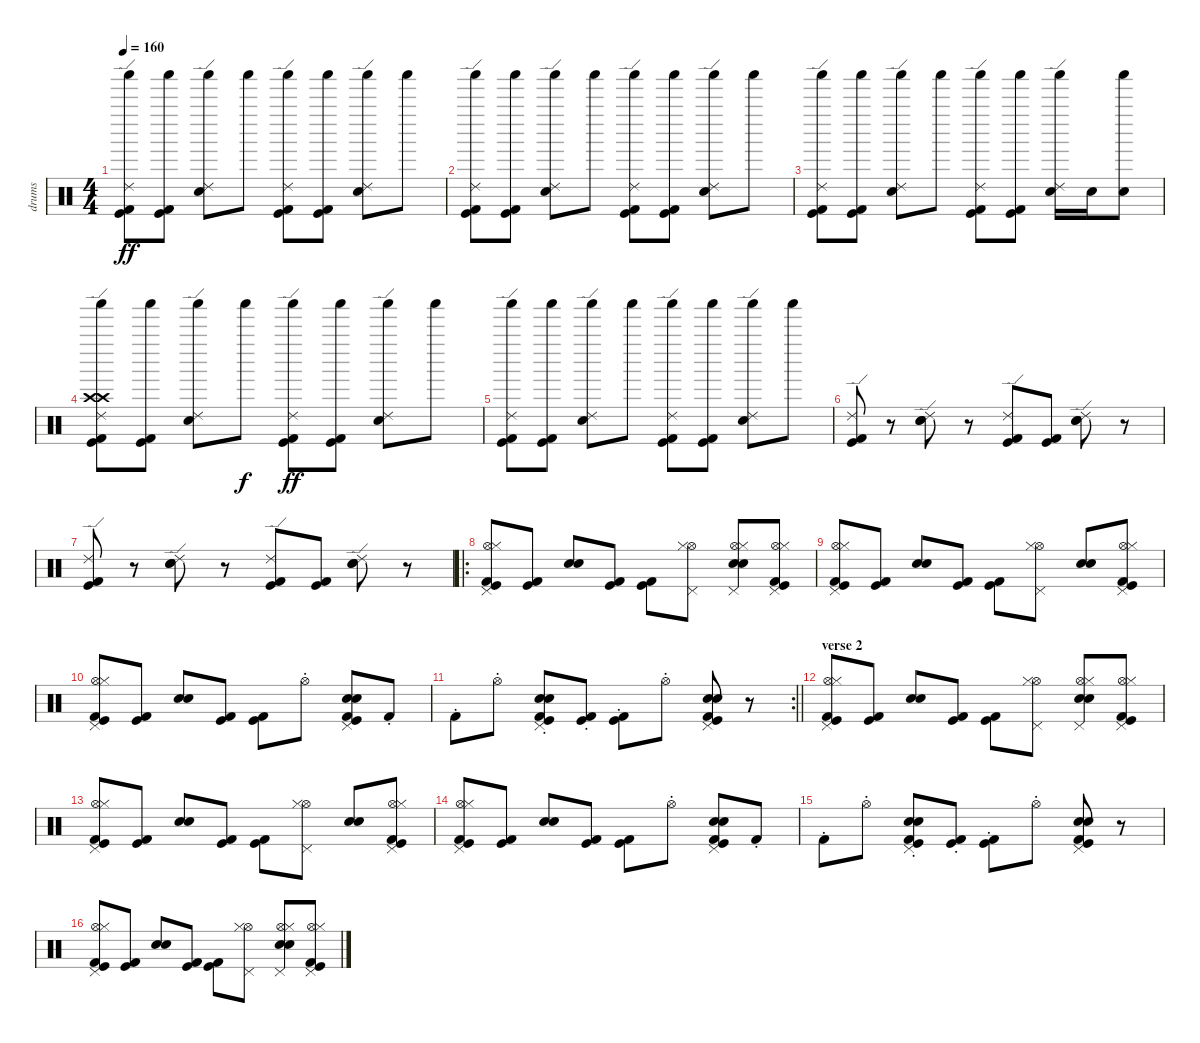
\track ("drums" "drums") {instrument percussion}
\staff {score}
\articulation defaults
\ts (4 4)
\tempo 160
\clef neutral
\ks c
("Shaker (hit)" "Kick (hit) 2" "Ride (edge) 2" "Kick (hit)").8{dy ff} ("Shaker (hit)" "Kick (hit) 2" "Kick (hit)").8 ("Shaker (hit)" "Ride (edge) 2" "Electric Snare (hit)").8 "Shaker (hit)".8 ("Shaker (hit)" "Kick (hit) 2" "Ride (edge) 2" "Kick (hit)").8 ("Shaker (hit)" "Kick (hit) 2" "Kick (hit)").8 ("Shaker (hit)" "Ride (edge) 2" "Electric Snare (hit)").8 "Shaker (hit)".8 |
("Shaker (hit)" "Kick (hit) 2" "Ride (edge) 2" "Kick (hit)").8 ("Shaker (hit)" "Kick (hit) 2" "Kick (hit)").8 ("Shaker (hit)" "Ride (edge) 2" "Electric Snare (hit)").8 "Shaker (hit)".8 ("Shaker (hit)" "Kick (hit) 2" "Ride (edge) 2" "Kick (hit)").8 ("Shaker (hit)" "Kick (hit) 2" "Kick (hit)").8 ("Shaker (hit)" "Ride (edge) 2" "Electric Snare (hit)").8 "Shaker (hit)".8 |
("Shaker (hit)" "Kick (hit) 2" "Ride (edge) 2" "Kick (hit)").8 ("Shaker (hit)" "Kick (hit) 2" "Kick (hit)").8 ("Shaker (hit)" "Ride (edge) 2" "Electric Snare (hit)").8 "Shaker (hit)".8 ("Shaker (hit)" "Kick (hit) 2" "Ride (edge) 2" "Kick (hit)").8 ("Shaker (hit)" "Kick (hit) 2" "Kick (hit)").8 ("Shaker (hit)" "Ride (edge) 2" "Electric Snare (hit)").16 "Electric Snare (hit)".16 ("Shaker (hit)" "Electric Snare (hit)").8 |
("Crash high (hit)" "Shaker (hit)" "Kick (hit) 2" "Ride (edge) 2" "Crash high (hit)" "Kick (hit)").8 ("Shaker (hit)" "Kick (hit) 2" "Kick (hit)").8 ("Shaker (hit)" "Ride (edge) 2" "Electric Snare (hit)").8 "Shaker (hit)".8{dy f} ("Shaker (hit)" "Kick (hit) 2" "Ride (edge) 2" "Kick (hit)").8{dy ff} ("Shaker (hit)" "Kick (hit) 2" "Kick (hit)").8 ("Shaker (hit)" "Ride (edge) 2" "Electric Snare (hit)").8 "Shaker (hit)".8 |
("Shaker (hit)" "Kick (hit) 2" "Ride (edge) 2" "Kick (hit)").8 ("Shaker (hit)" "Kick (hit) 2" "Kick (hit)").8 ("Shaker (hit)" "Ride (edge) 2" "Electric Snare (hit)").8 "Shaker (hit)".8 ("Shaker (hit)" "Kick (hit) 2" "Ride (edge) 2" "Kick (hit)").8 ("Shaker (hit)" "Kick (hit) 2" "Kick (hit)").8 ("Shaker (hit)" "Ride (edge) 2" "Electric Snare (hit)").8 "Shaker (hit)".8 |
("Ride (edge) 2" "Kick (hit) 2" "Kick (hit)").8 r.8 ("Ride (edge) 2" "Snare (hit) 2" "Electric Snare (hit)").8 r.8 ("Ride (edge) 2" "Kick (hit) 2" "Kick (hit)").8 ("Kick (hit) 2" "Kick (hit)").8 ("Ride (edge) 2" "Snare (hit) 2" "Electric Snare (hit)").8 r.8 |
("Ride (edge) 2" "Kick (hit) 2" "Kick (hit)").8 r.8 ("Ride (edge) 2" "Snare (hit) 2" "Electric Snare (hit)").8 r.8 ("Ride (edge) 2" "Kick (hit) 2" "Kick (hit)").8 ("Kick (hit) 2" "Kick (hit)").8 ("Ride (edge) 2" "Snare (hit) 2" "Electric Snare (hit)").8 r.8 |
\ro
("Hi-Hat (open)" "Hi-Hat (closed)" "Pedal Hi-Hat (hit)" "Kick (hit)" "Kick (hit) 2").8 ("Kick (hit)" "Kick (hit) 2").8 ("Electric Snare (hit)" "Snare (hit) 2").8 ("Kick (hit)" "Kick (hit) 2").8 ("Kick (hit)" "Kick (hit) 2").8 ("Hi-Hat (open)" "Pedal Hi-Hat (hit)" "Hi-Hat (closed)").8 ("Hi-Hat (open)" "Electric Snare (hit)" "Pedal Hi-Hat (hit)" "Hi-Hat (closed)" "Snare (hit) 2").8 ("Hi-Hat (open)" "Pedal Hi-Hat (hit)" "Hi-Hat (closed)" "Kick (hit)" "Kick (hit) 2").8 |
("Hi-Hat (open)" "Pedal Hi-Hat (hit)" "Hi-Hat (closed)" "Kick (hit)" "Kick (hit) 2").8 ("Kick (hit)" "Kick (hit) 2").8 ("Electric Snare (hit)" "Snare (hit) 2").8 ("Kick (hit)" "Kick (hit) 2").8 ("Kick (hit)" "Kick (hit) 2").8 ("Hi-Hat (open)" "Pedal Hi-Hat (hit)" "Hi-Hat (closed)").8 ("Electric Snare (hit)" "Snare (hit) 2").8 ("Hi-Hat (open)" "Pedal Hi-Hat (hit)" "Hi-Hat (closed)" "Kick (hit)" "Kick (hit) 2").8 |
("Hi-Hat (open)" "Pedal Hi-Hat (hit)" "Hi-Hat (closed)" "Kick (hit)" "Kick (hit) 2").8 ("Kick (hit)" "Kick (hit) 2").8 ("Electric Snare (hit)" "Snare (hit) 2").8 ("Kick (hit)" "Kick (hit) 2").8 ("Kick (hit)" "Kick (hit) 2").8 "Hi-Hat (open)"{st}.8 ("Electric Snare (hit)" "Pedal Hi-Hat (hit)" "Snare (hit) 2" "Kick (hit)" "Kick (hit) 2").8 "Kick (hit) 2"{st}.8 |
\rc 2
\barLineRight lightlight "Kick (hit) 2"{st}.8 "Hi-Hat (open)"{st}.8
("Electric Snare (hit)"{st} "Pedal Hi-Hat (hit)"{st} "Snare (hit) 2"{st} "Kick (hit)"{st} "Kick (hit) 2"{st}).8 ("Kick (hit)"{st} "Kick (hit) 2"{st}).8 ("Kick (hit)"{st} "Kick (hit) 2"{st}).8 "Hi-Hat (open)"{st}.8 ("Electric Snare (hit)" "Pedal Hi-Hat (hit)" "Snare (hit) 2" "Kick (hit)" "Kick (hit) 2").8 r.8 |
\section ("" "verse 2")
("Hi-Hat (open)" "Hi-Hat (closed)" "Pedal Hi-Hat (hit)" "Kick (hit)" "Kick (hit) 2").8 ("Kick (hit)" "Kick (hit) 2").8 ("Electric Snare (hit)" "Snare (hit) 2").8 ("Kick (hit)" "Kick (hit) 2").8 ("Kick (hit)" "Kick (hit) 2").8 ("Hi-Hat (open)" "Pedal Hi-Hat (hit)" "Hi-Hat (closed)").8 ("Hi-Hat (open)" "Electric Snare (hit)" "Pedal Hi-Hat (hit)" "Hi-Hat (closed)" "Snare (hit) 2").8 ("Hi-Hat (open)" "Pedal Hi-Hat (hit)" "Hi-Hat (closed)" "Kick (hit)" "Kick (hit) 2").8 |
("Hi-Hat (open)" "Pedal Hi-Hat (hit)" "Hi-Hat (closed)" "Kick (hit)" "Kick (hit) 2").8 ("Kick (hit)" "Kick (hit) 2").8 ("Electric Snare (hit)" "Snare (hit) 2").8 ("Kick (hit)" "Kick (hit) 2").8 ("Kick (hit)" "Kick (hit) 2").8 ("Hi-Hat (open)" "Pedal Hi-Hat (hit)" "Hi-Hat (closed)").8 ("Electric Snare (hit)" "Snare (hit) 2").8 ("Hi-Hat (open)" "Pedal Hi-Hat (hit)" "Hi-Hat (closed)" "Kick (hit)" "Kick (hit) 2").8 |
("Hi-Hat (open)" "Pedal Hi-Hat (hit)" "Hi-Hat (closed)" "Kick (hit)" "Kick (hit) 2").8 ("Kick (hit)" "Kick (hit) 2").8 ("Electric Snare (hit)" "Snare (hit) 2").8 ("Kick (hit)" "Kick (hit) 2").8 ("Kick (hit)" "Kick (hit) 2").8 "Hi-Hat (open)"{st}.8 ("Electric Snare (hit)" "Pedal Hi-Hat (hit)" "Snare (hit) 2" "Kick (hit)" "Kick (hit) 2").8 "Kick (hit) 2"{st}.8 |
"Kick (hit) 2"{st}.8 "Hi-Hat (open)"{st}.8 ("Electric Snare (hit)"{st} "Pedal Hi-Hat (hit)"{st} "Snare (hit) 2"{st} "Kick (hit)"{st} "Kick (hit) 2"{st}).8 ("Kick (hit)"{st} "Kick (hit) 2"{st}).8 ("Kick (hit)"{st} "Kick (hit) 2"{st}).8 "Hi-Hat (open)"{st}.8 ("Electric Snare (hit)" "Pedal Hi-Hat (hit)" "Snare (hit) 2" "Kick (hit)" "Kick (hit) 2").8 r.8 |
("Hi-Hat (open)" "Hi-Hat (closed)" "Pedal Hi-Hat (hit)" "Kick (hit)" "Kick (hit) 2").8 ("Kick (hit)" "Kick (hit) 2").8 ("Electric Snare (hit)" "Snare (hit) 2").8 ("Kick (hit)" "Kick (hit) 2").8 ("Kick (hit)" "Kick (hit) 2").8 ("Hi-Hat (open)" "Pedal Hi-Hat (hit)" "Hi-Hat (closed)").8 ("Hi-Hat (open)" "Electric Snare (hit)" "Pedal Hi-Hat (hit)" "Hi-Hat (closed)" "Snare (hit) 2").8 ("Hi-Hat (open)" "Pedal Hi-Hat (hit)" "Hi-Hat (closed)" "Kick (hit)" "Kick (hit) 2").8
